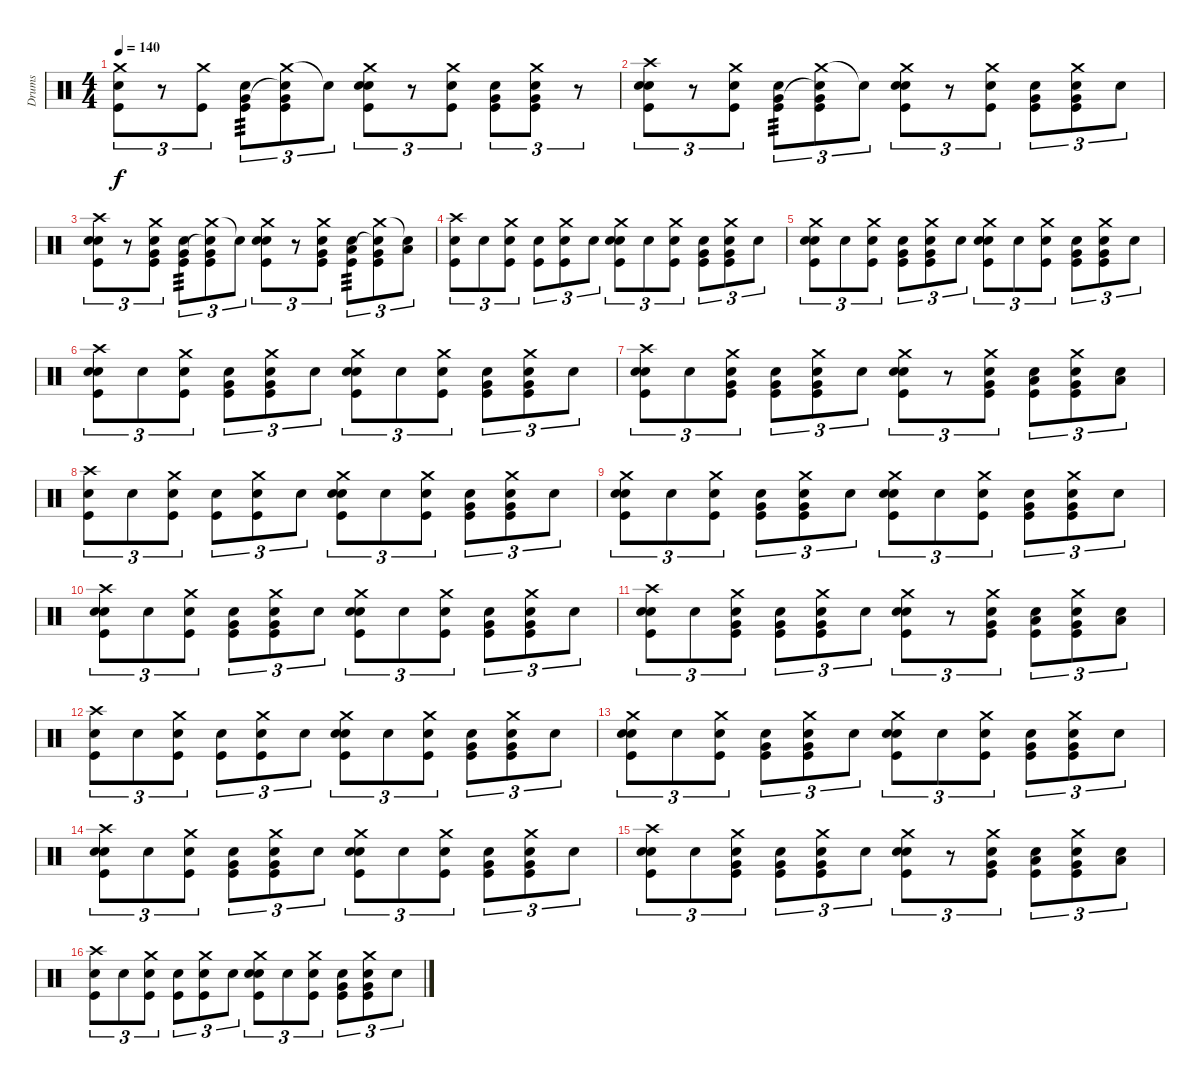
\track ("Drums" "Drums") {instrument percussion}
\staff {score}
\articulation defaults
\ts (4 4)
\tempo 140
\clef neutral
\ks c
("Crash medium (hit)" "Snare (hit) 2" "Kick (hit)").8{tu (3 2) dy f} r.8{tu (3 2)} ("Crash medium (hit)" "Kick (hit)").8{tu (3 2)} ("Snare (hit) 2" "Very Low Tom (hit)" "Kick (hit)").8{tu (3 2) tp 3} ("Crash medium (hit)" "Snare (hit)"{t} "Very Low Tom (hit)" "Kick (hit)").8{tu (3 2)} "Snare (hit)"{t}.8{tu (3 2)} ("Crash medium (hit)" "Snare (hit) 2" "Snare (hit) 2" "Kick (hit)").8{tu (3 2)} r.8{tu (3 2)} ("Crash medium (hit)" "Snare (hit) 2" "Kick (hit)").8{tu (3 2)} ("Snare (hit) 2" "Very Low Tom (hit)" "Kick (hit)").8{tu (3 2)} ("Crash medium (hit)" "Snare (hit) 2" "Very Low Tom (hit)" "Kick (hit)").8{tu (3 2)} r.8{tu (3 2)} |
("Crash high (hit)" "Snare (hit) 2" "Snare (hit) 2" "Kick (hit)").8{tu (3 2)} r.8{tu (3 2)} ("Crash medium (hit)" "Snare (hit) 2" "Kick (hit)").8{tu (3 2)} ("Snare (hit) 2" "Very Low Tom (hit)" "Kick (hit)").8{tu (3 2) tp 3} ("Crash medium (hit)" "Snare (hit)"{t} "Very Low Tom (hit)" "Kick (hit)").8{tu (3 2)} "Snare (hit)"{t}.8{tu (3 2)} ("Crash medium (hit)" "Snare (hit) 2" "Snare (hit) 2" "Kick (hit)").8{tu (3 2)} r.8{tu (3 2)} ("Crash medium (hit)" "Snare (hit) 2" "Kick (hit)").8{tu (3 2)} ("Snare (hit) 2" "Very Low Tom (hit)" "Kick (hit)").8{tu (3 2)} ("Crash medium (hit)" "Snare (hit) 2" "Very Low Tom (hit)" "Kick (hit)").8{tu (3 2)} "Snare (hit) 2".8{tu (3 2)} |
("Crash high (hit)" "Snare (hit) 2" "Snare (hit) 2" "Kick (hit)").8{tu (3 2)} r.8{tu (3 2)} ("Crash medium (hit)" "Snare (hit) 2" "Very Low Tom (hit)" "Kick (hit)").8{tu (3 2)} ("Snare (hit) 2" "Very Low Tom (hit)" "Kick (hit)").8{tu (3 2) tp 3} ("Crash medium (hit)" "Snare (hit)"{t} "Very Low Tom (hit)" "Kick (hit)").8{tu (3 2)} "Snare (hit)"{t}.8{tu (3 2)} ("Crash medium (hit)" "Snare (hit) 2" "Snare (hit) 2" "Kick (hit)").8{tu (3 2)} r.8{tu (3 2)} ("Crash medium (hit)" "Snare (hit) 2" "Very Low Tom (hit)" "Kick (hit)").8{tu (3 2)} ("Snare (hit) 2" "Low Tom (hit)" "Kick (hit)").8{tu (3 2) tp 3} ("Crash medium (hit)" "Snare (hit)"{t} "Very Low Tom (hit)" "Kick (hit)").8{tu (3 2)} ("Snare (hit)"{t} "Low Floor Tom (hit)").8{tu (3 2)} |
("Crash high (hit)" "Snare (hit) 2" "Kick (hit)").8{tu (3 2)} "Snare (hit) 2".8{tu (3 2)} ("Crash medium (hit)" "Snare (hit) 2" "Kick (hit)").8{tu (3 2)} ("Snare (hit) 2" "Kick (hit)").8{tu (3 2)} ("Crash medium (hit)" "Snare (hit) 2" "Kick (hit)").8{tu (3 2)} "Snare (hit) 2".8{tu (3 2)} ("Crash medium (hit)" "Snare (hit) 2" "Snare (hit) 2" "Kick (hit)").8{tu (3 2)} "Snare (hit) 2".8{tu (3 2)} ("Crash medium (hit)" "Snare (hit) 2" "Kick (hit)").8{tu (3 2)} ("Snare (hit) 2" "Very Low Tom (hit)" "Kick (hit)").8{tu (3 2)} ("Crash medium (hit)" "Snare (hit) 2" "Very Low Tom (hit)" "Kick (hit)").8{tu (3 2)} "Snare (hit) 2".8{tu (3 2)} |
("Crash medium (hit)" "Snare (hit) 2" "Snare (hit) 2" "Kick (hit)").8{tu (3 2)} "Snare (hit) 2".8{tu (3 2)} ("Crash medium (hit)" "Snare (hit) 2" "Kick (hit)").8{tu (3 2)} ("Snare (hit) 2" "Very Low Tom (hit)" "Kick (hit)").8{tu (3 2)} ("Crash medium (hit)" "Snare (hit) 2" "Very Low Tom (hit)" "Kick (hit)").8{tu (3 2)} "Snare (hit) 2".8{tu (3 2)} ("Crash medium (hit)" "Snare (hit) 2" "Snare (hit) 2" "Kick (hit)").8{tu (3 2)} "Snare (hit) 2".8{tu (3 2)} ("Crash medium (hit)" "Snare (hit) 2" "Kick (hit)").8{tu (3 2)} ("Snare (hit) 2" "Very Low Tom (hit)" "Kick (hit)").8{tu (3 2)} ("Crash medium (hit)" "Snare (hit) 2" "Very Low Tom (hit)" "Kick (hit)").8{tu (3 2)} "Snare (hit) 2".8{tu (3 2)} |
("Crash high (hit)" "Snare (hit) 2" "Snare (hit) 2" "Kick (hit)").8{tu (3 2)} "Snare (hit) 2".8{tu (3 2)} ("Crash medium (hit)" "Snare (hit) 2" "Kick (hit)").8{tu (3 2)} ("Snare (hit) 2" "Very Low Tom (hit)" "Kick (hit)").8{tu (3 2)} ("Crash medium (hit)" "Snare (hit) 2" "Very Low Tom (hit)" "Kick (hit)").8{tu (3 2)} "Snare (hit) 2".8{tu (3 2)} ("Crash medium (hit)" "Snare (hit) 2" "Snare (hit) 2" "Kick (hit)").8{tu (3 2)} "Snare (hit) 2".8{tu (3 2)} ("Crash medium (hit)" "Snare (hit) 2" "Kick (hit)").8{tu (3 2)} ("Snare (hit) 2" "Very Low Tom (hit)" "Kick (hit)").8{tu (3 2)} ("Crash medium (hit)" "Snare (hit) 2" "Very Low Tom (hit)" "Kick (hit)").8{tu (3 2)} "Snare (hit) 2".8{tu (3 2)} |
("Crash high (hit)" "Snare (hit) 2" "Snare (hit) 2" "Kick (hit)").8{tu (3 2)} "Snare (hit) 2".8{tu (3 2)} ("Crash medium (hit)" "Snare (hit) 2" "Very Low Tom (hit)" "Kick (hit)").8{tu (3 2)} ("Snare (hit) 2" "Very Low Tom (hit)" "Kick (hit)").8{tu (3 2)} ("Crash medium (hit)" "Snare (hit) 2" "Very Low Tom (hit)" "Kick (hit)").8{tu (3 2)} "Snare (hit) 2".8{tu (3 2)} ("Crash medium (hit)" "Snare (hit) 2" "Snare (hit) 2" "Kick (hit)").8{tu (3 2)} r.8{tu (3 2)} ("Crash medium (hit)" "Snare (hit) 2" "Very Low Tom (hit)" "Kick (hit)").8{tu (3 2)} ("Snare (hit) 2" "Low Tom (hit)" "Kick (hit)").8{tu (3 2)} ("Crash medium (hit)" "Snare (hit) 2" "Very Low Tom (hit)" "Kick (hit)").8{tu (3 2)} ("Snare (hit) 2" "Low Floor Tom (hit)").8{tu (3 2)} |
("Crash high (hit)" "Snare (hit) 2" "Kick (hit)").8{tu (3 2)} "Snare (hit) 2".8{tu (3 2)} ("Crash medium (hit)" "Snare (hit) 2" "Kick (hit)").8{tu (3 2)} ("Snare (hit) 2" "Kick (hit)").8{tu (3 2)} ("Crash medium (hit)" "Snare (hit) 2" "Kick (hit)").8{tu (3 2)} "Snare (hit) 2".8{tu (3 2)} ("Crash medium (hit)" "Snare (hit) 2" "Snare (hit) 2" "Kick (hit)").8{tu (3 2)} "Snare (hit) 2".8{tu (3 2)} ("Crash medium (hit)" "Snare (hit) 2" "Kick (hit)").8{tu (3 2)} ("Snare (hit) 2" "Very Low Tom (hit)" "Kick (hit)").8{tu (3 2)} ("Crash medium (hit)" "Snare (hit) 2" "Very Low Tom (hit)" "Kick (hit)").8{tu (3 2)} "Snare (hit) 2".8{tu (3 2)} |
("Crash medium (hit)" "Snare (hit) 2" "Snare (hit) 2" "Kick (hit)").8{tu (3 2)} "Snare (hit) 2".8{tu (3 2)} ("Crash medium (hit)" "Snare (hit) 2" "Kick (hit)").8{tu (3 2)} ("Snare (hit) 2" "Very Low Tom (hit)" "Kick (hit)").8{tu (3 2)} ("Crash medium (hit)" "Snare (hit) 2" "Very Low Tom (hit)" "Kick (hit)").8{tu (3 2)} "Snare (hit) 2".8{tu (3 2)} ("Crash medium (hit)" "Snare (hit) 2" "Snare (hit) 2" "Kick (hit)").8{tu (3 2)} "Snare (hit) 2".8{tu (3 2)} ("Crash medium (hit)" "Snare (hit) 2" "Kick (hit)").8{tu (3 2)} ("Snare (hit) 2" "Very Low Tom (hit)" "Kick (hit)").8{tu (3 2)} ("Crash medium (hit)" "Snare (hit) 2" "Very Low Tom (hit)" "Kick (hit)").8{tu (3 2)} "Snare (hit) 2".8{tu (3 2)} |
("Crash high (hit)" "Snare (hit) 2" "Snare (hit) 2" "Kick (hit)").8{tu (3 2)} "Snare (hit) 2".8{tu (3 2)} ("Crash medium (hit)" "Snare (hit) 2" "Kick (hit)").8{tu (3 2)} ("Snare (hit) 2" "Very Low Tom (hit)" "Kick (hit)").8{tu (3 2)} ("Crash medium (hit)" "Snare (hit) 2" "Very Low Tom (hit)" "Kick (hit)").8{tu (3 2)} "Snare (hit) 2".8{tu (3 2)} ("Crash medium (hit)" "Snare (hit) 2" "Snare (hit) 2" "Kick (hit)").8{tu (3 2)} "Snare (hit) 2".8{tu (3 2)} ("Crash medium (hit)" "Snare (hit) 2" "Kick (hit)").8{tu (3 2)} ("Snare (hit) 2" "Very Low Tom (hit)" "Kick (hit)").8{tu (3 2)} ("Crash medium (hit)" "Snare (hit) 2" "Very Low Tom (hit)" "Kick (hit)").8{tu (3 2)} "Snare (hit) 2".8{tu (3 2)} |
("Crash high (hit)" "Snare (hit) 2" "Snare (hit) 2" "Kick (hit)").8{tu (3 2)} "Snare (hit) 2".8{tu (3 2)} ("Crash medium (hit)" "Snare (hit) 2" "Very Low Tom (hit)" "Kick (hit)").8{tu (3 2)} ("Snare (hit) 2" "Very Low Tom (hit)" "Kick (hit)").8{tu (3 2)} ("Crash medium (hit)" "Snare (hit) 2" "Very Low Tom (hit)" "Kick (hit)").8{tu (3 2)} "Snare (hit) 2".8{tu (3 2)} ("Crash medium (hit)" "Snare (hit) 2" "Snare (hit) 2" "Kick (hit)").8{tu (3 2)} r.8{tu (3 2)} ("Crash medium (hit)" "Snare (hit) 2" "Very Low Tom (hit)" "Kick (hit)").8{tu (3 2)} ("Snare (hit) 2" "Low Tom (hit)" "Kick (hit)").8{tu (3 2)} ("Crash medium (hit)" "Snare (hit) 2" "Very Low Tom (hit)" "Kick (hit)").8{tu (3 2)} ("Snare (hit) 2" "Low Floor Tom (hit)").8{tu (3 2)} |
("Crash high (hit)" "Snare (hit) 2" "Kick (hit)").8{tu (3 2)} "Snare (hit) 2".8{tu (3 2)} ("Crash medium (hit)" "Snare (hit) 2" "Kick (hit)").8{tu (3 2)} ("Snare (hit) 2" "Kick (hit)").8{tu (3 2)} ("Crash medium (hit)" "Snare (hit) 2" "Kick (hit)").8{tu (3 2)} "Snare (hit) 2".8{tu (3 2)} ("Crash medium (hit)" "Snare (hit) 2" "Snare (hit) 2" "Kick (hit)").8{tu (3 2)} "Snare (hit) 2".8{tu (3 2)} ("Crash medium (hit)" "Snare (hit) 2" "Kick (hit)").8{tu (3 2)} ("Snare (hit) 2" "Very Low Tom (hit)" "Kick (hit)").8{tu (3 2)} ("Crash medium (hit)" "Snare (hit) 2" "Very Low Tom (hit)" "Kick (hit)").8{tu (3 2)} "Snare (hit) 2".8{tu (3 2)} |
("Crash medium (hit)" "Snare (hit) 2" "Snare (hit) 2" "Kick (hit)").8{tu (3 2)} "Snare (hit) 2".8{tu (3 2)} ("Crash medium (hit)" "Snare (hit) 2" "Kick (hit)").8{tu (3 2)} ("Snare (hit) 2" "Very Low Tom (hit)" "Kick (hit)").8{tu (3 2)} ("Crash medium (hit)" "Snare (hit) 2" "Very Low Tom (hit)" "Kick (hit)").8{tu (3 2)} "Snare (hit) 2".8{tu (3 2)} ("Crash medium (hit)" "Snare (hit) 2" "Snare (hit) 2" "Kick (hit)").8{tu (3 2)} "Snare (hit) 2".8{tu (3 2)} ("Crash medium (hit)" "Snare (hit) 2" "Kick (hit)").8{tu (3 2)} ("Snare (hit) 2" "Very Low Tom (hit)" "Kick (hit)").8{tu (3 2)} ("Crash medium (hit)" "Snare (hit) 2" "Very Low Tom (hit)" "Kick (hit)").8{tu (3 2)} "Snare (hit) 2".8{tu (3 2)} |
("Crash high (hit)" "Snare (hit) 2" "Snare (hit) 2" "Kick (hit)").8{tu (3 2)} "Snare (hit) 2".8{tu (3 2)} ("Crash medium (hit)" "Snare (hit) 2" "Kick (hit)").8{tu (3 2)} ("Snare (hit) 2" "Very Low Tom (hit)" "Kick (hit)").8{tu (3 2)} ("Crash medium (hit)" "Snare (hit) 2" "Very Low Tom (hit)" "Kick (hit)").8{tu (3 2)} "Snare (hit) 2".8{tu (3 2)} ("Crash medium (hit)" "Snare (hit) 2" "Snare (hit) 2" "Kick (hit)").8{tu (3 2)} "Snare (hit) 2".8{tu (3 2)} ("Crash medium (hit)" "Snare (hit) 2" "Kick (hit)").8{tu (3 2)} ("Snare (hit) 2" "Very Low Tom (hit)" "Kick (hit)").8{tu (3 2)} ("Crash medium (hit)" "Snare (hit) 2" "Very Low Tom (hit)" "Kick (hit)").8{tu (3 2)} "Snare (hit) 2".8{tu (3 2)} |
("Crash high (hit)" "Snare (hit) 2" "Snare (hit) 2" "Kick (hit)").8{tu (3 2)} "Snare (hit) 2".8{tu (3 2)} ("Crash medium (hit)" "Snare (hit) 2" "Very Low Tom (hit)" "Kick (hit)").8{tu (3 2)} ("Snare (hit) 2" "Very Low Tom (hit)" "Kick (hit)").8{tu (3 2)} ("Crash medium (hit)" "Snare (hit) 2" "Very Low Tom (hit)" "Kick (hit)").8{tu (3 2)} "Snare (hit) 2".8{tu (3 2)} ("Crash medium (hit)" "Snare (hit) 2" "Snare (hit) 2" "Kick (hit)").8{tu (3 2)} r.8{tu (3 2)} ("Crash medium (hit)" "Snare (hit) 2" "Very Low Tom (hit)" "Kick (hit)").8{tu (3 2)} ("Snare (hit) 2" "Low Tom (hit)" "Kick (hit)").8{tu (3 2)} ("Crash medium (hit)" "Snare (hit) 2" "Very Low Tom (hit)" "Kick (hit)").8{tu (3 2)} ("Snare (hit) 2" "Low Floor Tom (hit)").8{tu (3 2)} |
("Crash high (hit)" "Snare (hit) 2" "Kick (hit)").8{tu (3 2)} "Snare (hit) 2".8{tu (3 2)} ("Crash medium (hit)" "Snare (hit) 2" "Kick (hit)").8{tu (3 2)} ("Snare (hit) 2" "Kick (hit)").8{tu (3 2)} ("Crash medium (hit)" "Snare (hit) 2" "Kick (hit)").8{tu (3 2)} "Snare (hit) 2".8{tu (3 2)} ("Crash medium (hit)" "Snare (hit) 2" "Snare (hit) 2" "Kick (hit)").8{tu (3 2)} "Snare (hit) 2".8{tu (3 2)} ("Crash medium (hit)" "Snare (hit) 2" "Kick (hit)").8{tu (3 2)} ("Snare (hit) 2" "Very Low Tom (hit)" "Kick (hit)").8{tu (3 2)} ("Crash medium (hit)" "Snare (hit) 2" "Very Low Tom (hit)" "Kick (hit)").8{tu (3 2)} "Snare (hit) 2".8{tu (3 2)}
